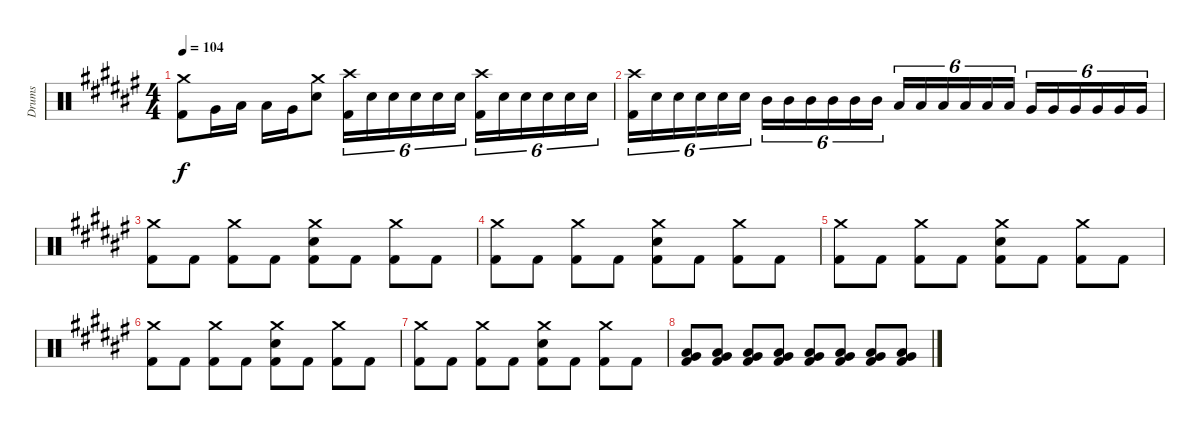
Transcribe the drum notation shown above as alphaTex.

\track ("Drums" "Drums") {instrument percussion}
\staff {score}
\articulation defaults
\ts (4 4)
\tempo 104
\clef neutral
\ks f#
("Crash medium (hit)" "Kick (hit) 2").8{dy f} "Very Low Tom (hit)".16 "Low Tom (hit)".16 "Low Floor Tom (hit)".16 "Very Low Tom (hit)".16 ("Crash medium (hit)" "Snare (hit) 2").8 ("Crash high (hit)" "Kick (hit) 2").16{tu (6 4)} "Snare (hit) 2".16{tu (6 4)} "Snare (hit) 2".16{tu (6 4)} "Snare (hit) 2".16{tu (6 4)} "Snare (hit) 2".16{tu (6 4)} "Snare (hit) 2".16{tu (6 4)} ("Crash high (hit)" "Kick (hit) 2").16{tu (6 4)} "Snare (hit) 2".16{tu (6 4)} "Snare (hit) 2".16{tu (6 4)} "Snare (hit) 2".16{tu (6 4)} "Snare (hit) 2".16{tu (6 4)} "Snare (hit) 2".16{tu (6 4)} |
("Crash high (hit)" "Kick (hit) 2").16{tu (6 4)} "Snare (hit) 2".16{tu (6 4)} "Snare (hit) 2".16{tu (6 4)} "Snare (hit) 2".16{tu (6 4)} "Snare (hit) 2".16{tu (6 4)} "Snare (hit) 2".16{tu (6 4)} "Mid Tom (hit)".16{tu (6 4)} "Mid Tom (hit)".16{tu (6 4)} "Mid Tom (hit)".16{tu (6 4)} "Mid Tom (hit)".16{tu (6 4)} "Mid Tom (hit)".16{tu (6 4)} "Mid Tom (hit)".16{tu (6 4)} "Low Tom (hit)".16{tu (6 4)} "Low Tom (hit)".16{tu (6 4)} "Low Tom (hit)".16{tu (6 4)} "Low Tom (hit)".16{tu (6 4)} "Low Tom (hit)".16{tu (6 4)} "Low Tom (hit)".16{tu (6 4)} "Very Low Tom (hit)".16{tu (6 4)} "Very Low Tom (hit)".16{tu (6 4)} "Very Low Tom (hit)".16{tu (6 4)} "Very Low Tom (hit)".16{tu (6 4)} "Very Low Tom (hit)".16{tu (6 4)} "Very Low Tom (hit)".16{tu (6 4)} |
("Crash medium (hit)" "Kick (hit) 2").8 "Kick (hit) 2".8 ("Crash medium (hit)" "Kick (hit) 2").8 "Kick (hit) 2".8 ("Crash medium (hit)" "Snare (hit) 2" "Kick (hit) 2").8 "Kick (hit) 2".8 ("Crash medium (hit)" "Kick (hit) 2").8 "Kick (hit) 2".8 |
("Crash medium (hit)" "Kick (hit) 2").8 "Kick (hit) 2".8 ("Crash medium (hit)" "Kick (hit) 2").8 "Kick (hit) 2".8 ("Crash medium (hit)" "Snare (hit) 2" "Kick (hit) 2").8 "Kick (hit) 2".8 ("Crash medium (hit)" "Kick (hit) 2").8 "Kick (hit) 2".8 |
("Crash medium (hit)" "Kick (hit) 2").8 "Kick (hit) 2".8 ("Crash medium (hit)" "Kick (hit) 2").8 "Kick (hit) 2".8 ("Crash medium (hit)" "Snare (hit) 2" "Kick (hit) 2").8 "Kick (hit) 2".8 ("Crash medium (hit)" "Kick (hit) 2").8 "Kick (hit) 2".8 |
("Crash medium (hit)" "Kick (hit) 2").8 "Kick (hit) 2".8 ("Crash medium (hit)" "Kick (hit) 2").8 "Kick (hit) 2".8 ("Crash medium (hit)" "Snare (hit) 2" "Kick (hit) 2").8 "Kick (hit) 2".8 ("Crash medium (hit)" "Kick (hit) 2").8 "Kick (hit) 2".8 |
("Crash medium (hit)" "Kick (hit) 2").8 "Kick (hit) 2".8 ("Crash medium (hit)" "Kick (hit) 2").8 "Kick (hit) 2".8 ("Crash medium (hit)" "Snare (hit) 2" "Kick (hit) 2").8 "Kick (hit) 2".8 ("Crash medium (hit)" "Kick (hit) 2").8 "Kick (hit) 2".8 |
("Low Tom (hit)" "Very Low Tom (hit)" "Kick (hit) 2").8 ("Low Tom (hit)" "Very Low Tom (hit)" "Kick (hit) 2").8 ("Low Tom (hit)" "Very Low Tom (hit)" "Kick (hit) 2").8 ("Low Tom (hit)" "Very Low Tom (hit)" "Kick (hit) 2").8 ("Low Tom (hit)" "Very Low Tom (hit)" "Kick (hit) 2").8 ("Low Tom (hit)" "Very Low Tom (hit)" "Kick (hit) 2").8 ("Low Tom (hit)" "Very Low Tom (hit)" "Kick (hit) 2").8 ("Low Tom (hit)" "Very Low Tom (hit)" "Kick (hit) 2").8
